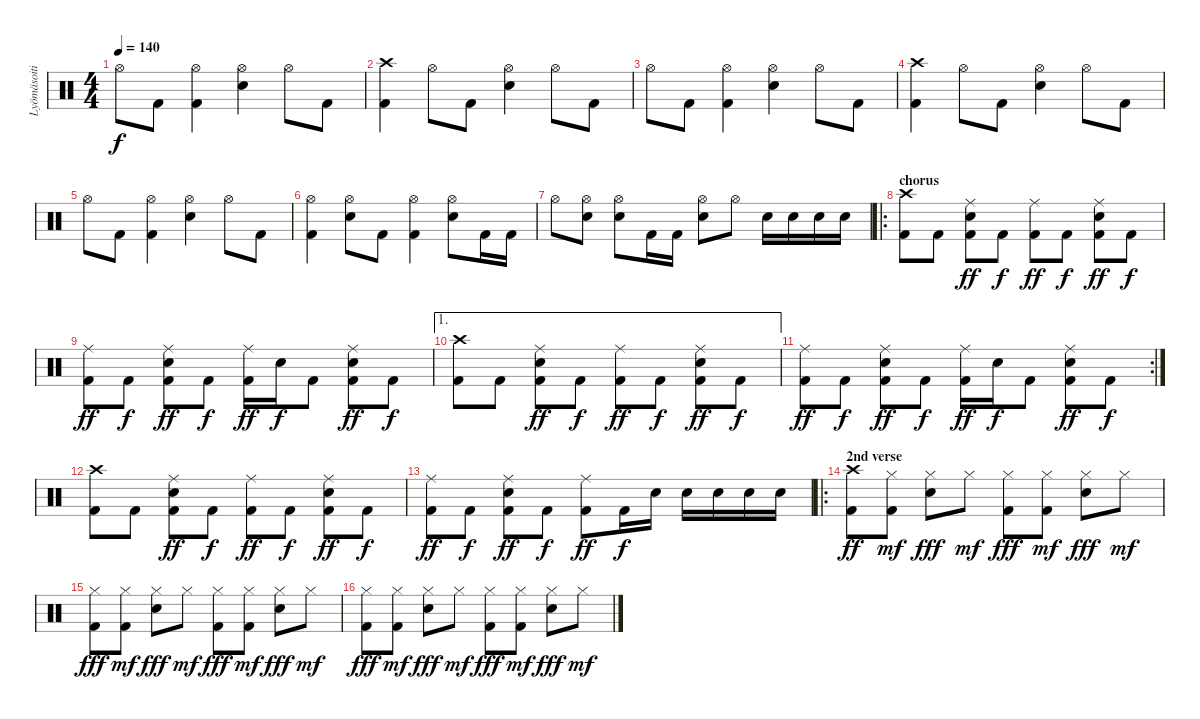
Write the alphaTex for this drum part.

\track ("Lyömäsoitin" "Lyömäsoiti") {instrument percussion}
\staff {score}
\articulation defaults
\ts (4 4)
\tempo 140
\clef neutral
\ks c "Hi-Hat (open)".8{dy f} "Kick (hit) 2".8
("Kick (hit) 2" "Hi-Hat (open)").4 ("Hi-Hat (open)" "Snare (hit) 2").4 "Hi-Hat (open)".8 "Kick (hit) 2".8 |
("Kick (hit) 2" "Crash high (hit)").4 "Hi-Hat (open)".8 "Kick (hit) 2".8 ("Hi-Hat (open)" "Snare (hit) 2").4 "Hi-Hat (open)".8 "Kick (hit) 2".8 |
"Hi-Hat (open)".8 "Kick (hit) 2".8 ("Kick (hit) 2" "Hi-Hat (open)").4 ("Hi-Hat (open)" "Snare (hit) 2").4 "Hi-Hat (open)".8 "Kick (hit) 2".8 |
("Kick (hit) 2" "Crash high (hit)").4 "Hi-Hat (open)".8 "Kick (hit) 2".8 ("Hi-Hat (open)" "Snare (hit) 2").4 "Hi-Hat (open)".8 "Kick (hit) 2".8 |
"Hi-Hat (open)".8 "Kick (hit) 2".8 ("Kick (hit) 2" "Hi-Hat (open)").4 ("Hi-Hat (open)" "Snare (hit) 2").4 "Hi-Hat (open)".8 "Kick (hit) 2".8 |
("Kick (hit) 2" "Hi-Hat (open)").4 ("Hi-Hat (open)" "Snare (hit) 2").8 "Kick (hit) 2".8 ("Kick (hit) 2" "Hi-Hat (open)").4 ("Hi-Hat (open)" "Snare (hit) 2").8 "Kick (hit) 2".16 "Kick (hit) 2".16 |
"Hi-Hat (open)".8 ("Hi-Hat (open)" "Snare (hit) 2").8 ("Hi-Hat (open)" "Snare (hit) 2").8 "Kick (hit) 2".16 "Kick (hit) 2".16 ("Hi-Hat (open)" "Snare (hit) 2").8 "Hi-Hat (open)".8 "Snare (hit) 2".16 "Snare (hit) 2".16 "Snare (hit) 2".16 "Snare (hit) 2".16 |
\ro
\section ("" "chorus")
("Kick (hit) 2" "Crash high (hit)").8 "Kick (hit) 2".8 ("Kick (hit) 2" "Ride (middle)" "Snare (hit) 2").8{dy ff} "Kick (hit) 2".8{dy f} ("Kick (hit) 2" "Ride (middle)").8{dy ff} "Kick (hit) 2".8{dy f} ("Kick (hit) 2" "Ride (middle)" "Snare (hit) 2").8{dy ff} "Kick (hit) 2".8{dy f} |
("Kick (hit) 2" "Ride (middle)").8{dy ff} "Kick (hit) 2".8{dy f} ("Kick (hit) 2" "Ride (middle)" "Snare (hit) 2").8{dy ff} "Kick (hit) 2".8{dy f} ("Kick (hit) 2" "Ride (middle)").16{dy ff} "Snare (hit) 2".16{dy f} "Kick (hit) 2".8 ("Kick (hit) 2" "Ride (middle)" "Snare (hit) 2").8{dy ff} "Kick (hit) 2".8{dy f} |
\ae 1
("Kick (hit) 2" "Crash high (hit)").8 "Kick (hit) 2".8 ("Kick (hit) 2" "Ride (middle)" "Snare (hit) 2").8{dy ff} "Kick (hit) 2".8{dy f} ("Kick (hit) 2" "Ride (middle)").8{dy ff} "Kick (hit) 2".8{dy f} ("Kick (hit) 2" "Ride (middle)" "Snare (hit) 2").8{dy ff} "Kick (hit) 2".8{dy f} |
\rc 2
("Kick (hit) 2" "Ride (middle)").8{dy ff} "Kick (hit) 2".8{dy f} ("Kick (hit) 2" "Ride (middle)" "Snare (hit) 2").8{dy ff} "Kick (hit) 2".8{dy f} ("Kick (hit) 2" "Ride (middle)").16{dy ff} "Snare (hit) 2".16{dy f} "Kick (hit) 2".8 ("Kick (hit) 2" "Ride (middle)" "Snare (hit) 2").8{dy ff} "Kick (hit) 2".8{dy f} |
("Kick (hit) 2" "Crash high (hit)").8 "Kick (hit) 2".8 ("Kick (hit) 2" "Ride (middle)" "Snare (hit) 2").8{dy ff} "Kick (hit) 2".8{dy f} ("Kick (hit) 2" "Ride (middle)").8{dy ff} "Kick (hit) 2".8{dy f} ("Kick (hit) 2" "Ride (middle)" "Snare (hit) 2").8{dy ff} "Kick (hit) 2".8{dy f} |
("Kick (hit) 2" "Ride (middle)").8{dy ff} "Kick (hit) 2".8{dy f} ("Kick (hit) 2" "Ride (middle)" "Snare (hit) 2").8{dy ff} "Kick (hit) 2".8{dy f} ("Kick (hit) 2" "Ride (middle)").8{dy ff} "Kick (hit) 2".16{dy f} "Snare (hit) 2".16 "Snare (hit) 2".16 "Snare (hit) 2".16 "Snare (hit) 2".16 "Snare (hit) 2".16 |
\ro
\section ("" "2nd verse")
("Kick (hit) 2" "Crash high (hit)").8{dy ff volume 10} ("Kick (hit) 2" "Hi-Hat (closed)").8{dy mf} ("Hi-Hat (closed)" "Snare (hit) 2").8{dy fff} "Hi-Hat (closed)".8{dy mf} ("Kick (hit) 2" "Hi-Hat (closed)").8{dy fff} ("Kick (hit) 2" "Hi-Hat (closed)").8{dy mf} ("Hi-Hat (closed)" "Snare (hit) 2").8{dy fff} "Hi-Hat (closed)".8{dy mf} |
("Kick (hit) 2" "Hi-Hat (closed)").8{dy fff} ("Kick (hit) 2" "Hi-Hat (closed)").8{dy mf} ("Hi-Hat (closed)" "Snare (hit) 2").8{dy fff} "Hi-Hat (closed)".8{dy mf} ("Kick (hit) 2" "Hi-Hat (closed)").8{dy fff} ("Kick (hit) 2" "Hi-Hat (closed)").8{dy mf} ("Hi-Hat (closed)" "Snare (hit) 2").8{dy fff} "Hi-Hat (closed)".8{dy mf} |
("Kick (hit) 2" "Hi-Hat (closed)").8{dy fff} ("Kick (hit) 2" "Hi-Hat (closed)").8{dy mf} ("Hi-Hat (closed)" "Snare (hit) 2").8{dy fff} "Hi-Hat (closed)".8{dy mf} ("Kick (hit) 2" "Hi-Hat (closed)").8{dy fff} ("Kick (hit) 2" "Hi-Hat (closed)").8{dy mf} ("Hi-Hat (closed)" "Snare (hit) 2").8{dy fff} "Hi-Hat (closed)".8{dy mf}
